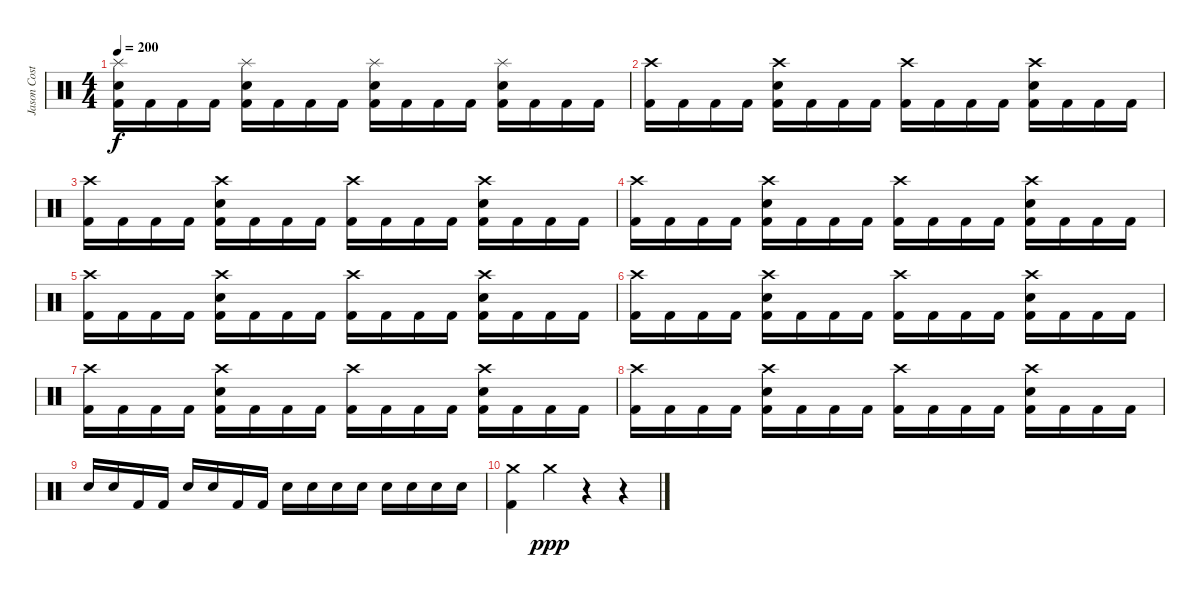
\track ("Jason Costa" "Jason Cost") {instrument percussion}
\staff {score}
\articulation defaults
\ts (4 4)
\tempo 200
\clef neutral
\ks c
("Splash (hit)" "Electric Snare (hit)" "Kick (hit) 2").16{dy f} "Kick (hit) 2".16 "Kick (hit) 2".16 "Kick (hit) 2".16 ("Splash (hit)" "Electric Snare (hit)" "Kick (hit) 2").16 "Kick (hit) 2".16 "Kick (hit) 2".16 "Kick (hit) 2".16 ("Splash (hit)" "Electric Snare (hit)" "Kick (hit) 2").16 "Kick (hit) 2".16 "Kick (hit) 2".16 "Kick (hit) 2".16 ("Splash (hit)" "Electric Snare (hit)" "Kick (hit) 2").16 "Kick (hit) 2".16 "Kick (hit) 2".16 "Kick (hit) 2".16 |
("Crash high (hit)" "Kick (hit) 2").16 "Kick (hit) 2".16 "Kick (hit) 2".16 "Kick (hit) 2".16 ("Crash high (hit)" "Electric Snare (hit)" "Kick (hit) 2").16 "Kick (hit) 2".16 "Kick (hit) 2".16 "Kick (hit) 2".16 ("Crash high (hit)" "Kick (hit) 2").16 "Kick (hit) 2".16 "Kick (hit) 2".16 "Kick (hit) 2".16 ("Crash high (hit)" "Electric Snare (hit)" "Kick (hit) 2").16 "Kick (hit) 2".16 "Kick (hit) 2".16 "Kick (hit) 2".16 |
("Crash high (hit)" "Kick (hit) 2").16 "Kick (hit) 2".16 "Kick (hit) 2".16 "Kick (hit) 2".16 ("Crash high (hit)" "Electric Snare (hit)" "Kick (hit) 2").16 "Kick (hit) 2".16 "Kick (hit) 2".16 "Kick (hit) 2".16 ("Crash high (hit)" "Kick (hit) 2").16 "Kick (hit) 2".16 "Kick (hit) 2".16 "Kick (hit) 2".16 ("Crash high (hit)" "Electric Snare (hit)" "Kick (hit) 2").16 "Kick (hit) 2".16 "Kick (hit) 2".16 "Kick (hit) 2".16 |
("Crash high (hit)" "Kick (hit) 2").16 "Kick (hit) 2".16 "Kick (hit) 2".16 "Kick (hit) 2".16 ("Crash high (hit)" "Electric Snare (hit)" "Kick (hit) 2").16 "Kick (hit) 2".16 "Kick (hit) 2".16 "Kick (hit) 2".16 ("Crash high (hit)" "Kick (hit) 2").16 "Kick (hit) 2".16 "Kick (hit) 2".16 "Kick (hit) 2".16 ("Crash high (hit)" "Electric Snare (hit)" "Kick (hit) 2").16 "Kick (hit) 2".16 "Kick (hit) 2".16 "Kick (hit) 2".16 |
("Crash high (hit)" "Kick (hit) 2").16 "Kick (hit) 2".16 "Kick (hit) 2".16 "Kick (hit) 2".16 ("Crash high (hit)" "Electric Snare (hit)" "Kick (hit) 2").16 "Kick (hit) 2".16 "Kick (hit) 2".16 "Kick (hit) 2".16 ("Crash high (hit)" "Kick (hit) 2").16 "Kick (hit) 2".16 "Kick (hit) 2".16 "Kick (hit) 2".16 ("Crash high (hit)" "Electric Snare (hit)" "Kick (hit) 2").16 "Kick (hit) 2".16 "Kick (hit) 2".16 "Kick (hit) 2".16 |
("Crash high (hit)" "Kick (hit) 2").16 "Kick (hit) 2".16 "Kick (hit) 2".16 "Kick (hit) 2".16 ("Crash high (hit)" "Electric Snare (hit)" "Kick (hit) 2").16 "Kick (hit) 2".16 "Kick (hit) 2".16 "Kick (hit) 2".16 ("Crash high (hit)" "Kick (hit) 2").16 "Kick (hit) 2".16 "Kick (hit) 2".16 "Kick (hit) 2".16 ("Crash high (hit)" "Electric Snare (hit)" "Kick (hit) 2").16 "Kick (hit) 2".16 "Kick (hit) 2".16 "Kick (hit) 2".16 |
("Crash high (hit)" "Kick (hit) 2").16 "Kick (hit) 2".16 "Kick (hit) 2".16 "Kick (hit) 2".16 ("Crash high (hit)" "Electric Snare (hit)" "Kick (hit) 2").16 "Kick (hit) 2".16 "Kick (hit) 2".16 "Kick (hit) 2".16 ("Crash high (hit)" "Kick (hit) 2").16 "Kick (hit) 2".16 "Kick (hit) 2".16 "Kick (hit) 2".16 ("Crash high (hit)" "Electric Snare (hit)" "Kick (hit) 2").16 "Kick (hit) 2".16 "Kick (hit) 2".16 "Kick (hit) 2".16 |
("Crash high (hit)" "Kick (hit) 2").16 "Kick (hit) 2".16 "Kick (hit) 2".16 "Kick (hit) 2".16 ("Crash high (hit)" "Electric Snare (hit)" "Kick (hit) 2").16 "Kick (hit) 2".16 "Kick (hit) 2".16 "Kick (hit) 2".16 ("Crash high (hit)" "Kick (hit) 2").16 "Kick (hit) 2".16 "Kick (hit) 2".16 "Kick (hit) 2".16 ("Crash high (hit)" "Electric Snare (hit)" "Kick (hit) 2").16 "Kick (hit) 2".16 "Kick (hit) 2".16 "Kick (hit) 2".16 |
"Electric Snare (hit)".16 "Electric Snare (hit)".16 "Kick (hit) 2".16 "Kick (hit) 2".16 "Electric Snare (hit)".16 "Electric Snare (hit)".16 "Kick (hit) 2".16 "Kick (hit) 2".16 "Electric Snare (hit)".16 "Electric Snare (hit)".16 "Electric Snare (hit)".16 "Electric Snare (hit)".16 "Electric Snare (hit)".16 "Electric Snare (hit)".16 "Electric Snare (hit)".16 "Electric Snare (hit)".16 |
("Crash medium (hit)" "Kick (hit) 2").4 "Crash medium (hit)".4{dy ppp} r.4 r.4
